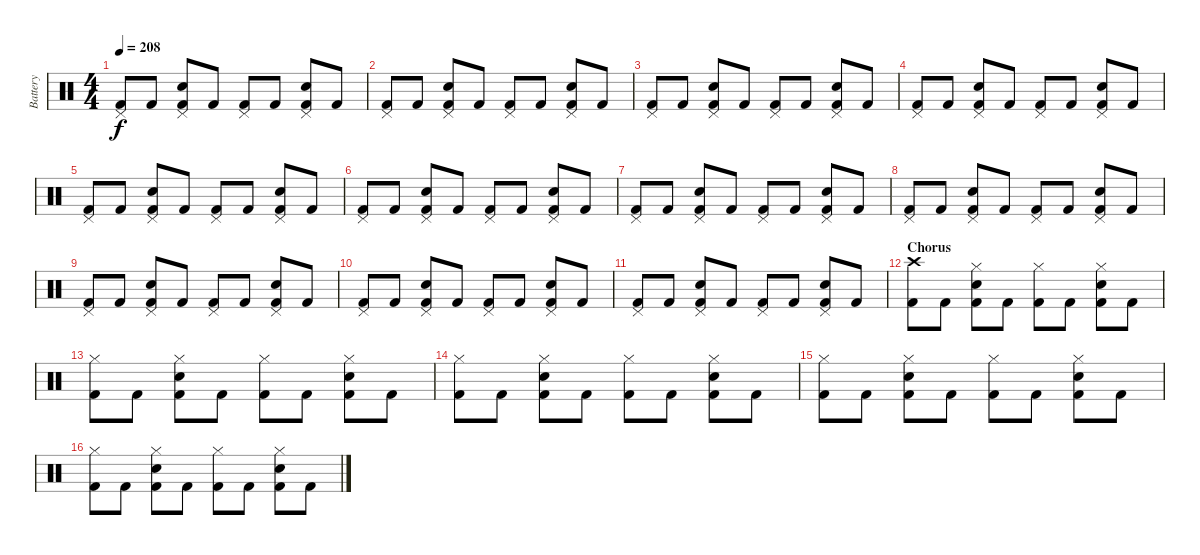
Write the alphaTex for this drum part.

\track ("Battery" "Battery") {instrument percussion}
\staff {score}
\articulation defaults
\ts (4 4)
\tempo 208
\clef neutral
\ks c
("Pedal Hi-Hat (hit)" "Kick (hit) 2").8{dy f} "Kick (hit) 2".8 ("Pedal Hi-Hat (hit)" "Electric Snare (hit)" "Kick (hit) 2").8 "Kick (hit) 2".8 ("Pedal Hi-Hat (hit)" "Kick (hit) 2").8 "Kick (hit) 2".8 ("Pedal Hi-Hat (hit)" "Electric Snare (hit)" "Kick (hit) 2").8 "Kick (hit) 2".8 |
("Pedal Hi-Hat (hit)" "Kick (hit) 2").8 "Kick (hit) 2".8 ("Pedal Hi-Hat (hit)" "Electric Snare (hit)" "Kick (hit) 2").8 "Kick (hit) 2".8 ("Pedal Hi-Hat (hit)" "Kick (hit) 2").8 "Kick (hit) 2".8 ("Pedal Hi-Hat (hit)" "Electric Snare (hit)" "Kick (hit) 2").8 "Kick (hit) 2".8 |
("Pedal Hi-Hat (hit)" "Kick (hit) 2").8 "Kick (hit) 2".8 ("Pedal Hi-Hat (hit)" "Electric Snare (hit)" "Kick (hit) 2").8 "Kick (hit) 2".8 ("Pedal Hi-Hat (hit)" "Kick (hit) 2").8 "Kick (hit) 2".8 ("Pedal Hi-Hat (hit)" "Electric Snare (hit)" "Kick (hit) 2").8 "Kick (hit) 2".8 |
("Pedal Hi-Hat (hit)" "Kick (hit) 2").8 "Kick (hit) 2".8 ("Pedal Hi-Hat (hit)" "Electric Snare (hit)" "Kick (hit) 2").8 "Kick (hit) 2".8 ("Pedal Hi-Hat (hit)" "Kick (hit) 2").8 "Kick (hit) 2".8 ("Pedal Hi-Hat (hit)" "Electric Snare (hit)" "Kick (hit) 2").8 "Kick (hit) 2".8 |
("Pedal Hi-Hat (hit)" "Kick (hit) 2").8 "Kick (hit) 2".8 ("Pedal Hi-Hat (hit)" "Electric Snare (hit)" "Kick (hit) 2").8 "Kick (hit) 2".8 ("Pedal Hi-Hat (hit)" "Kick (hit) 2").8 "Kick (hit) 2".8 ("Pedal Hi-Hat (hit)" "Electric Snare (hit)" "Kick (hit) 2").8 "Kick (hit) 2".8 |
("Pedal Hi-Hat (hit)" "Kick (hit) 2").8 "Kick (hit) 2".8 ("Pedal Hi-Hat (hit)" "Electric Snare (hit)" "Kick (hit) 2").8 "Kick (hit) 2".8 ("Pedal Hi-Hat (hit)" "Kick (hit) 2").8 "Kick (hit) 2".8 ("Pedal Hi-Hat (hit)" "Electric Snare (hit)" "Kick (hit) 2").8 "Kick (hit) 2".8 |
("Pedal Hi-Hat (hit)" "Kick (hit) 2").8 "Kick (hit) 2".8 ("Pedal Hi-Hat (hit)" "Electric Snare (hit)" "Kick (hit) 2").8 "Kick (hit) 2".8 ("Pedal Hi-Hat (hit)" "Kick (hit) 2").8 "Kick (hit) 2".8 ("Pedal Hi-Hat (hit)" "Electric Snare (hit)" "Kick (hit) 2").8 "Kick (hit) 2".8 |
("Pedal Hi-Hat (hit)" "Kick (hit) 2").8 "Kick (hit) 2".8 ("Pedal Hi-Hat (hit)" "Electric Snare (hit)" "Kick (hit) 2").8 "Kick (hit) 2".8 ("Pedal Hi-Hat (hit)" "Kick (hit) 2").8 "Kick (hit) 2".8 ("Pedal Hi-Hat (hit)" "Electric Snare (hit)" "Kick (hit) 2").8 "Kick (hit) 2".8 |
("Pedal Hi-Hat (hit)" "Kick (hit) 2").8 "Kick (hit) 2".8 ("Pedal Hi-Hat (hit)" "Electric Snare (hit)" "Kick (hit) 2").8 "Kick (hit) 2".8 ("Pedal Hi-Hat (hit)" "Kick (hit) 2").8 "Kick (hit) 2".8 ("Pedal Hi-Hat (hit)" "Electric Snare (hit)" "Kick (hit) 2").8 "Kick (hit) 2".8 |
("Pedal Hi-Hat (hit)" "Kick (hit) 2").8 "Kick (hit) 2".8 ("Pedal Hi-Hat (hit)" "Electric Snare (hit)" "Kick (hit) 2").8 "Kick (hit) 2".8 ("Pedal Hi-Hat (hit)" "Kick (hit) 2").8 "Kick (hit) 2".8 ("Pedal Hi-Hat (hit)" "Electric Snare (hit)" "Kick (hit) 2").8 "Kick (hit) 2".8 |
("Pedal Hi-Hat (hit)" "Kick (hit) 2").8 "Kick (hit) 2".8 ("Pedal Hi-Hat (hit)" "Electric Snare (hit)" "Kick (hit) 2").8 "Kick (hit) 2".8 ("Pedal Hi-Hat (hit)" "Kick (hit) 2").8 "Kick (hit) 2".8 ("Pedal Hi-Hat (hit)" "Electric Snare (hit)" "Kick (hit) 2").8 "Kick (hit) 2".8 |
\section ("" "Chorus")
("Crash high (hit)" "Kick (hit) 2").8 "Kick (hit) 2".8 ("Hi-Hat (closed)" "Electric Snare (hit)" "Kick (hit) 2").8 "Kick (hit) 2".8 ("Hi-Hat (closed)" "Kick (hit) 2").8 "Kick (hit) 2".8 ("Hi-Hat (closed)" "Electric Snare (hit)" "Kick (hit) 2").8 "Kick (hit) 2".8 |
("Hi-Hat (closed)" "Kick (hit) 2").8 "Kick (hit) 2".8 ("Hi-Hat (closed)" "Electric Snare (hit)" "Kick (hit) 2").8 "Kick (hit) 2".8 ("Hi-Hat (closed)" "Kick (hit) 2").8 "Kick (hit) 2".8 ("Hi-Hat (closed)" "Electric Snare (hit)" "Kick (hit) 2").8 "Kick (hit) 2".8 |
("Hi-Hat (closed)" "Kick (hit) 2").8 "Kick (hit) 2".8 ("Hi-Hat (closed)" "Electric Snare (hit)" "Kick (hit) 2").8 "Kick (hit) 2".8 ("Hi-Hat (closed)" "Kick (hit) 2").8 "Kick (hit) 2".8 ("Hi-Hat (closed)" "Electric Snare (hit)" "Kick (hit) 2").8 "Kick (hit) 2".8 |
("Hi-Hat (closed)" "Kick (hit) 2").8 "Kick (hit) 2".8 ("Hi-Hat (closed)" "Electric Snare (hit)" "Kick (hit) 2").8 "Kick (hit) 2".8 ("Hi-Hat (closed)" "Kick (hit) 2").8 "Kick (hit) 2".8 ("Hi-Hat (closed)" "Electric Snare (hit)" "Kick (hit) 2").8 "Kick (hit) 2".8 |
("Hi-Hat (closed)" "Kick (hit) 2").8 "Kick (hit) 2".8 ("Hi-Hat (closed)" "Electric Snare (hit)" "Kick (hit) 2").8 "Kick (hit) 2".8 ("Hi-Hat (closed)" "Kick (hit) 2").8 "Kick (hit) 2".8 ("Hi-Hat (closed)" "Electric Snare (hit)" "Kick (hit) 2").8 "Kick (hit) 2".8
